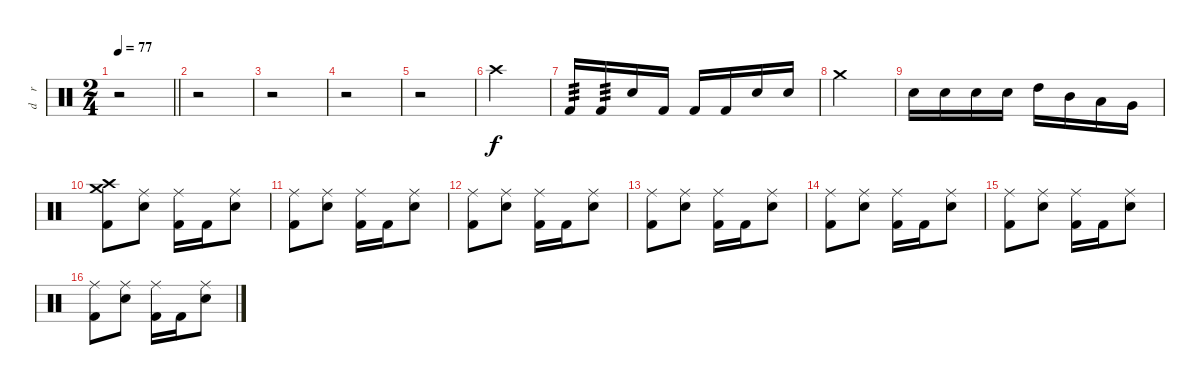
\track ("d    r     u    m    s" "d    r    ") {instrument percussion}
\staff {score}
\articulation defaults
\ts (2 4)
\tempo 77
\clef neutral
\barLineRight lightlight
\ks c
r.2{dy f} |
r.2 |
r.2 |
r.2 |
r.2 |
"Crash high (hit)".2 |
"Kick (hit) 2".16{tp 3} "Kick (hit) 2".16{tp 3} "Electric Snare (hit)".16 "Kick (hit) 2".16 "Kick (hit) 2".16 "Kick (hit) 2".16 "Electric Snare (hit)".16 "Electric Snare (hit)".16 |
"Crash medium (hit)".2 |
"Electric Snare (hit)".16 "Electric Snare (hit)".16 "Electric Snare (hit)".16 "Electric Snare (hit)".16 "High Tom (hit)".16 "Mid Tom (hit)".16 "Low Tom (hit)".16 "Very Low Tom (hit)".16 |
("Crash high (hit)" "Crash medium (hit)" "Kick (hit) 2").8 ("Ride (middle)" "Electric Snare (hit)").8 ("Ride (middle)" "Kick (hit) 2").16 "Kick (hit) 2".16 ("Ride (middle)" "Electric Snare (hit)").8 |
("Ride (middle)" "Kick (hit) 2").8 ("Ride (middle)" "Electric Snare (hit)").8 ("Ride (middle)" "Kick (hit) 2").16 "Kick (hit) 2".16 ("Ride (middle)" "Electric Snare (hit)").8 |
("Ride (middle)" "Kick (hit) 2").8 ("Ride (middle)" "Electric Snare (hit)").8 ("Ride (middle)" "Kick (hit) 2").16 "Kick (hit) 2".16 ("Ride (middle)" "Electric Snare (hit)").8 |
("Ride (middle)" "Kick (hit) 2").8 ("Ride (middle)" "Electric Snare (hit)").8 ("Ride (middle)" "Kick (hit) 2").16 "Kick (hit) 2".16 ("Ride (middle)" "Electric Snare (hit)").8 |
("Ride (middle)" "Kick (hit) 2").8 ("Ride (middle)" "Electric Snare (hit)").8 ("Ride (middle)" "Kick (hit) 2").16 "Kick (hit) 2".16 ("Ride (middle)" "Electric Snare (hit)").8 |
("Ride (middle)" "Kick (hit) 2").8 ("Ride (middle)" "Electric Snare (hit)").8 ("Ride (middle)" "Kick (hit) 2").16 "Kick (hit) 2".16 ("Ride (middle)" "Electric Snare (hit)").8 |
("Ride (middle)" "Kick (hit) 2").8 ("Ride (middle)" "Electric Snare (hit)").8 ("Ride (middle)" "Kick (hit) 2").16 "Kick (hit) 2".16 ("Ride (middle)" "Electric Snare (hit)").8
